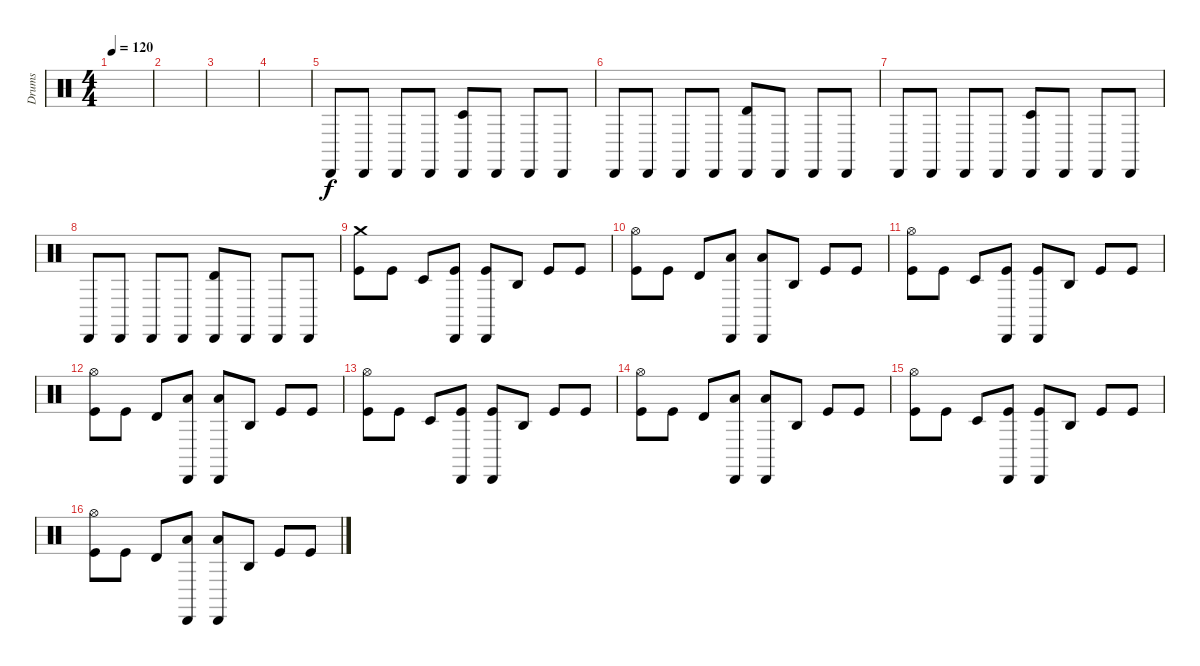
\track ("Drums" "Drums") {instrument percussion}
\staff {score}
\articulation defaults
\ts (4 4)
\tempo 120
\clef neutral
\ks c
|
|
|
|
"Cabasa (hit)".8 "Cabasa (hit)".8 "Cabasa (hit)".8 "Cabasa (hit)".8 ("Cabasa (hit)" "Timbale low (hit)").8 "Cabasa (hit)".8 "Cabasa (hit)".8 "Cabasa (hit)".8 |
"Cabasa (hit)".8 "Cabasa (hit)".8 "Cabasa (hit)".8 "Cabasa (hit)".8 ("Cabasa (hit)" "Timbale high (hit)").8 "Cabasa (hit)".8 "Cabasa (hit)".8 "Cabasa (hit)".8 |
"Cabasa (hit)".8 "Cabasa (hit)".8 "Cabasa (hit)".8 "Cabasa (hit)".8 ("Cabasa (hit)" "Timbale low (hit)").8 "Cabasa (hit)".8 "Cabasa (hit)".8 "Cabasa (hit)".8 |
"Cabasa (hit)".8 "Cabasa (hit)".8 "Cabasa (hit)".8 "Cabasa (hit)".8 ("Cabasa (hit)" "Timbale high (hit)").8 "Cabasa (hit)".8 "Cabasa (hit)".8 "Cabasa (hit)".8 |
("Kick (hit)" "Crash medium (hit)").8 "Kick (hit)".8 "Timbale low (hit)".8 ("Cabasa (hit)" "Kick (hit)").8 ("Cabasa (hit)" "Kick (hit)").8 "Agogo high (hit)".8 "Kick (hit)".8 "Kick (hit)".8 |
("Kick (hit)" "Hi-Hat (open)").8 "Kick (hit)".8 "Timbale high (hit)".8 ("Cabasa (hit)" "Low Tom (hit)").8 ("Cabasa (hit)" "Low Tom (hit)").8 "Agogo high (hit)".8 "Kick (hit)".8 "Kick (hit)".8 |
("Kick (hit)" "Hi-Hat (open)").8 "Kick (hit)".8 "Timbale low (hit)".8 ("Cabasa (hit)" "Kick (hit)").8 ("Cabasa (hit)" "Kick (hit)").8 "Agogo high (hit)".8 "Kick (hit)".8 "Kick (hit)".8 |
("Kick (hit)" "Hi-Hat (open)").8 "Kick (hit)".8 "Timbale high (hit)".8 ("Cabasa (hit)" "Low Tom (hit)").8 ("Cabasa (hit)" "Low Tom (hit)").8 "Agogo high (hit)".8 "Kick (hit)".8 "Kick (hit)".8 |
("Kick (hit)" "Hi-Hat (open)").8 "Kick (hit)".8 "Timbale low (hit)".8 ("Cabasa (hit)" "Kick (hit)").8 ("Cabasa (hit)" "Kick (hit)").8 "Agogo high (hit)".8 "Kick (hit)".8 "Kick (hit)".8 |
("Kick (hit)" "Hi-Hat (open)").8 "Kick (hit)".8 "Timbale high (hit)".8 ("Cabasa (hit)" "Low Tom (hit)").8 ("Cabasa (hit)" "Low Tom (hit)").8 "Agogo high (hit)".8 "Kick (hit)".8 "Kick (hit)".8 |
("Kick (hit)" "Hi-Hat (open)").8 "Kick (hit)".8 "Timbale low (hit)".8 ("Cabasa (hit)" "Kick (hit)").8 ("Cabasa (hit)" "Kick (hit)").8 "Agogo high (hit)".8 "Kick (hit)".8 "Kick (hit)".8 |
("Kick (hit)" "Hi-Hat (open)").8 "Kick (hit)".8 "Timbale high (hit)".8 ("Cabasa (hit)" "Low Tom (hit)").8 ("Cabasa (hit)" "Low Tom (hit)").8 "Agogo high (hit)".8 "Kick (hit)".8 "Kick (hit)".8
